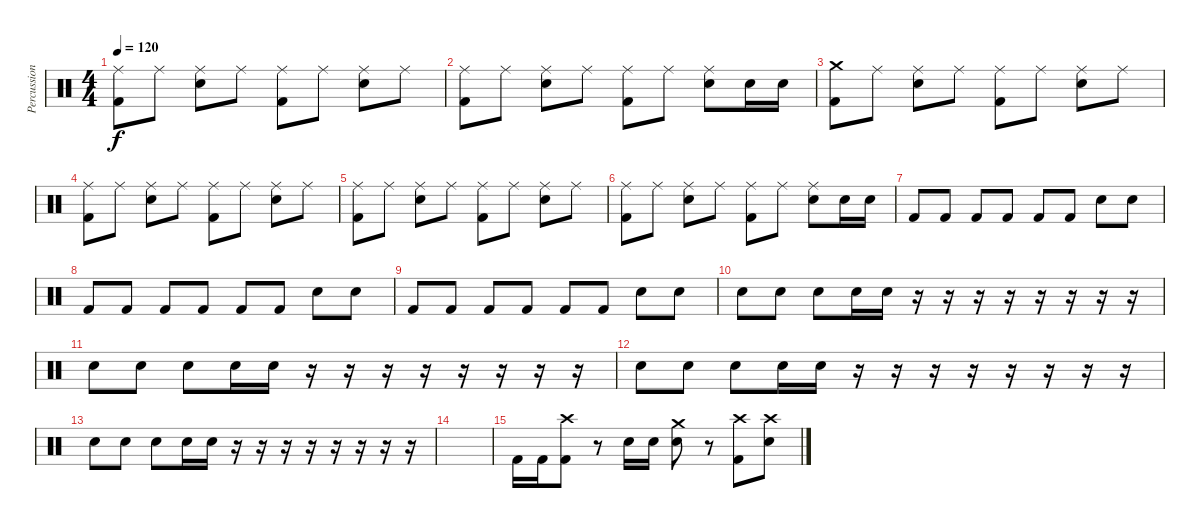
\track ("Percussions" "Percussion") {instrument percussion}
\staff {score}
\articulation defaults
\ts (4 4)
\tempo 120
\clef neutral
\ks c
("Ride (middle)" "Kick (hit) 2").8{dy f} "Ride (middle)".8 ("Ride (middle)" "Electric Snare (hit)").8 "Ride (middle)".8 ("Ride (middle)" "Kick (hit) 2").8 "Ride (middle)".8 ("Ride (middle)" "Electric Snare (hit)").8 "Ride (middle)".8 |
("Ride (middle)" "Kick (hit) 2").8 "Ride (middle)".8 ("Ride (middle)" "Electric Snare (hit)").8 "Ride (middle)".8 ("Ride (middle)" "Kick (hit) 2").8 "Ride (middle)".8 ("Ride (middle)" "Electric Snare (hit)").8 "Electric Snare (hit)".16 "Electric Snare (hit)".16 |
("Crash medium (hit)" "Kick (hit) 2").8 "Ride (middle)".8 ("Ride (middle)" "Electric Snare (hit)").8 "Ride (middle)".8 ("Ride (middle)" "Kick (hit) 2").8 "Ride (middle)".8 ("Ride (middle)" "Electric Snare (hit)").8 "Ride (middle)".8 |
("Ride (middle)" "Kick (hit) 2").8 "Ride (middle)".8 ("Ride (middle)" "Electric Snare (hit)").8 "Ride (middle)".8 ("Ride (middle)" "Kick (hit) 2").8 "Ride (middle)".8 ("Ride (middle)" "Electric Snare (hit)").8 "Ride (middle)".8 |
("Ride (middle)" "Kick (hit) 2").8 "Ride (middle)".8 ("Ride (middle)" "Electric Snare (hit)").8 "Ride (middle)".8 ("Ride (middle)" "Kick (hit) 2").8 "Ride (middle)".8 ("Ride (middle)" "Electric Snare (hit)").8 "Ride (middle)".8 |
("Ride (middle)" "Kick (hit) 2").8 "Ride (middle)".8 ("Ride (middle)" "Electric Snare (hit)").8 "Ride (middle)".8 ("Ride (middle)" "Kick (hit) 2").8 "Ride (middle)".8 ("Ride (middle)" "Electric Snare (hit)").8 "Electric Snare (hit)".16 "Electric Snare (hit)".16 |
"Kick (hit) 2".8 "Kick (hit) 2".8 "Kick (hit) 2".8 "Kick (hit) 2".8 "Kick (hit) 2".8 "Kick (hit) 2".8 "Electric Snare (hit)".8 "Electric Snare (hit)".8 |
"Kick (hit) 2".8 "Kick (hit) 2".8 "Kick (hit) 2".8 "Kick (hit) 2".8 "Kick (hit) 2".8 "Kick (hit) 2".8 "Electric Snare (hit)".8 "Electric Snare (hit)".8 |
"Kick (hit) 2".8 "Kick (hit) 2".8 "Kick (hit) 2".8 "Kick (hit) 2".8 "Kick (hit) 2".8 "Kick (hit) 2".8 "Electric Snare (hit)".8 "Electric Snare (hit)".8 |
"Electric Snare (hit)".8 "Electric Snare (hit)".8 "Electric Snare (hit)".8 "Electric Snare (hit)".16 "Electric Snare (hit)".16 r.16 r.16 r.16 r.16 r.16 r.16 r.16 r.16 |
"Electric Snare (hit)".8 "Electric Snare (hit)".8 "Electric Snare (hit)".8 "Electric Snare (hit)".16 "Electric Snare (hit)".16 r.16 r.16 r.16 r.16 r.16 r.16 r.16 r.16 |
"Electric Snare (hit)".8 "Electric Snare (hit)".8 "Electric Snare (hit)".8 "Electric Snare (hit)".16 "Electric Snare (hit)".16 r.16 r.16 r.16 r.16 r.16 r.16 r.16 r.16 |
"Electric Snare (hit)".8 "Electric Snare (hit)".8 "Electric Snare (hit)".8 "Electric Snare (hit)".16 "Electric Snare (hit)".16 r.16 r.16 r.16 r.16 r.16 r.16 r.16 r.16 |
|
"Kick (hit) 2".16 "Kick (hit) 2".16 ("Crash high (hit)" "Kick (hit) 2").8 r.8 "Electric Snare (hit)".16 "Electric Snare (hit)".16 ("Crash medium (hit)" "Electric Snare (hit)").8 r.8 ("Crash high (hit)" "Kick (hit) 2").8 ("Crash high (hit)" "Electric Snare (hit)").8
